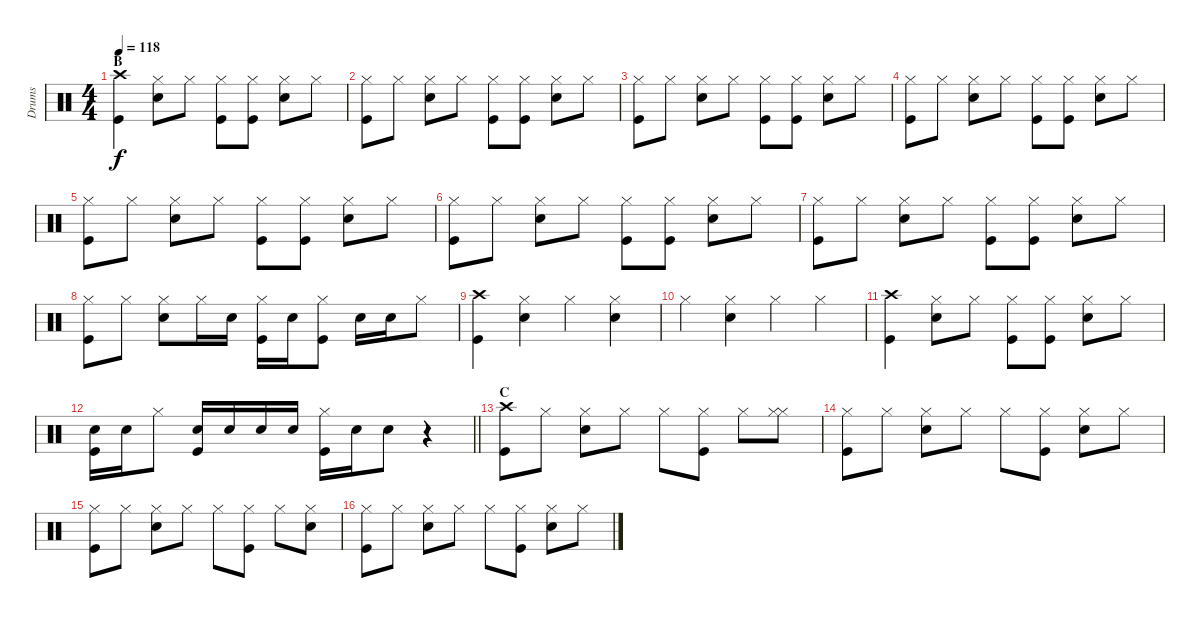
\track ("Drums" "Drums") {instrument percussion}
\staff {score}
\articulation defaults
\ts (4 4)
\section ("" "B")
\tempo 118
\clef neutral
\ks c
("Crash high (hit)" "Kick (hit)").4{dy f} ("Hi-Hat (closed)" "Electric Snare (hit)").8 "Hi-Hat (closed)".8 ("Hi-Hat (closed)" "Kick (hit)").8 ("Hi-Hat (closed)" "Kick (hit)").8 ("Hi-Hat (closed)" "Electric Snare (hit)").8 "Hi-Hat (closed)".8 |
("Hi-Hat (closed)" "Kick (hit)").8 "Hi-Hat (closed)".8 ("Hi-Hat (closed)" "Electric Snare (hit)").8 "Hi-Hat (closed)".8 ("Hi-Hat (closed)" "Kick (hit)").8 ("Hi-Hat (closed)" "Kick (hit)").8 ("Hi-Hat (closed)" "Electric Snare (hit)").8 "Hi-Hat (closed)".8 |
("Hi-Hat (closed)" "Kick (hit)").8 "Hi-Hat (closed)".8 ("Hi-Hat (closed)" "Electric Snare (hit)").8 "Hi-Hat (closed)".8 ("Hi-Hat (closed)" "Kick (hit)").8 ("Hi-Hat (closed)" "Kick (hit)").8 ("Hi-Hat (closed)" "Electric Snare (hit)").8 "Hi-Hat (closed)".8 |
("Hi-Hat (closed)" "Kick (hit)").8 "Hi-Hat (closed)".8 ("Hi-Hat (closed)" "Electric Snare (hit)").8 "Hi-Hat (closed)".8 ("Hi-Hat (closed)" "Kick (hit)").8 ("Hi-Hat (closed)" "Kick (hit)").8 ("Hi-Hat (closed)" "Electric Snare (hit)").8 "Hi-Hat (closed)".8 |
("Hi-Hat (closed)" "Kick (hit)").8 "Hi-Hat (closed)".8 ("Hi-Hat (closed)" "Electric Snare (hit)").8 "Hi-Hat (closed)".8 ("Hi-Hat (closed)" "Kick (hit)").8 ("Hi-Hat (closed)" "Kick (hit)").8 ("Hi-Hat (closed)" "Electric Snare (hit)").8 "Hi-Hat (closed)".8 |
("Hi-Hat (closed)" "Kick (hit)").8 "Hi-Hat (closed)".8 ("Hi-Hat (closed)" "Electric Snare (hit)").8 "Hi-Hat (closed)".8 ("Hi-Hat (closed)" "Kick (hit)").8 ("Hi-Hat (closed)" "Kick (hit)").8 ("Hi-Hat (closed)" "Electric Snare (hit)").8 "Hi-Hat (closed)".8 |
("Hi-Hat (closed)" "Kick (hit)").8 "Hi-Hat (closed)".8 ("Hi-Hat (closed)" "Electric Snare (hit)").8 "Hi-Hat (closed)".8 ("Hi-Hat (closed)" "Kick (hit)").8 ("Hi-Hat (closed)" "Kick (hit)").8 ("Hi-Hat (closed)" "Electric Snare (hit)").8 "Hi-Hat (closed)".8 |
("Hi-Hat (closed)" "Kick (hit)").8 "Hi-Hat (closed)".8 ("Hi-Hat (closed)" "Electric Snare (hit)").8 "Hi-Hat (closed)".16 "Electric Snare (hit)".16 ("Hi-Hat (closed)" "Kick (hit)").16 "Electric Snare (hit)".16 ("Hi-Hat (closed)" "Kick (hit)").8 "Electric Snare (hit)".16 "Electric Snare (hit)".16 "Hi-Hat (closed)".8 |
("Crash high (hit)" "Kick (hit)").4 ("Hi-Hat (closed)" "Electric Snare (hit)").4 "Hi-Hat (closed)".4 ("Hi-Hat (closed)" "Electric Snare (hit)").4 |
"Hi-Hat (closed)".4 ("Hi-Hat (closed)" "Electric Snare (hit)").4 "Hi-Hat (closed)".4 "Hi-Hat (closed)".4 |
("Crash high (hit)" "Kick (hit)").4 ("Hi-Hat (closed)" "Electric Snare (hit)").8 "Hi-Hat (closed)".8 ("Hi-Hat (closed)" "Kick (hit)").8 ("Hi-Hat (closed)" "Kick (hit)").8 ("Hi-Hat (closed)" "Electric Snare (hit)").8 "Hi-Hat (closed)".8 |
\barLineRight lightlight
("Electric Snare (hit)" "Kick (hit)").16 "Electric Snare (hit)".16 "Hi-Hat (closed)".8 ("Electric Snare (hit)" "Kick (hit)").16 "Electric Snare (hit)".16 "Electric Snare (hit)".16 "Electric Snare (hit)".16 ("Hi-Hat (closed)" "Kick (hit)").16 "Electric Snare (hit)".16 "Electric Snare (hit)".8 r.4 |
\section ("" "C")
("Crash high (hit)" "Kick (hit)").8 "Hi-Hat (closed)".8 ("Hi-Hat (closed)" "Electric Snare (hit)").8 "Hi-Hat (closed)".8 "Hi-Hat (closed)".8 ("Hi-Hat (closed)" "Kick (hit)").8 "Hi-Hat (closed)".8 ("Hi-Hat (closed)" "Hi-Hat (closed)").8 |
("Hi-Hat (closed)" "Kick (hit)").8 "Hi-Hat (closed)".8 ("Hi-Hat (closed)" "Electric Snare (hit)").8 "Hi-Hat (closed)".8 "Hi-Hat (closed)".8 ("Hi-Hat (closed)" "Kick (hit)").8 ("Hi-Hat (closed)" "Electric Snare (hit)").8 "Hi-Hat (closed)".8 |
("Hi-Hat (closed)" "Kick (hit)").8 "Hi-Hat (closed)".8 ("Hi-Hat (closed)" "Electric Snare (hit)").8 "Hi-Hat (closed)".8 "Hi-Hat (closed)".8 ("Hi-Hat (closed)" "Kick (hit)").8 "Hi-Hat (closed)".8 ("Hi-Hat (closed)" "Electric Snare (hit)").8 |
("Hi-Hat (closed)" "Kick (hit)").8 "Hi-Hat (closed)".8 ("Hi-Hat (closed)" "Electric Snare (hit)").8 "Hi-Hat (closed)".8 "Hi-Hat (closed)".8 ("Hi-Hat (closed)" "Kick (hit)").8 ("Hi-Hat (closed)" "Electric Snare (hit)").8 "Hi-Hat (closed)".8
